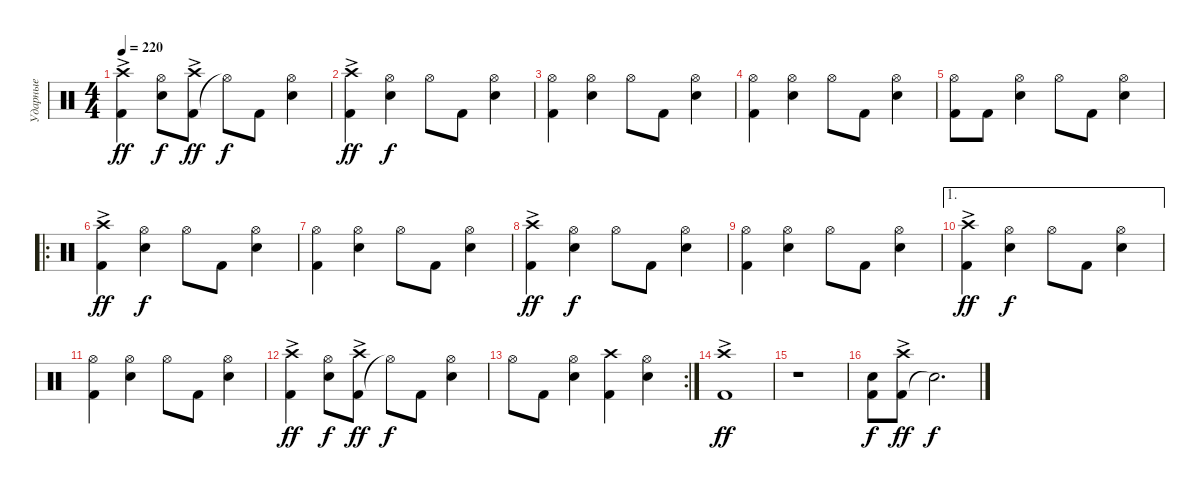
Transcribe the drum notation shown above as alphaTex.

\track ("Ударные" "Ударные") {instrument percussion}
\staff {score}
\articulation defaults
\ts (4 4)
\tempo 220
\clef neutral
\ks c
("Kick (hit) 2" "Crash high (hit)"{ac}).4{dy ff} ("Snare (hit) 2" "Hi-Hat (open)").8{dy f} ("Kick (hit) 2" "Crash high (hit)"{ac}).8{dy ff} "Hi-Hat (open)"{t}.8{dy f} "Kick (hit) 2".8 ("Snare (hit) 2" "Hi-Hat (open)").4 |
("Kick (hit) 2" "Crash high (hit)"{ac}).4{dy ff} ("Snare (hit) 2" "Hi-Hat (open)").4{dy f} "Hi-Hat (open)".8 "Kick (hit) 2".8 ("Snare (hit) 2" "Hi-Hat (open)").4 |
("Kick (hit) 2" "Hi-Hat (open)").4 ("Snare (hit) 2" "Hi-Hat (open)").4 "Hi-Hat (open)".8 "Kick (hit) 2".8 ("Snare (hit) 2" "Hi-Hat (open)").4 |
("Kick (hit) 2" "Hi-Hat (open)").4 ("Snare (hit) 2" "Hi-Hat (open)").4 "Hi-Hat (open)".8 "Kick (hit) 2".8 ("Snare (hit) 2" "Hi-Hat (open)").4 |
("Kick (hit) 2" "Hi-Hat (open)").8 "Kick (hit) 2".8 ("Snare (hit) 2" "Hi-Hat (open)").4 "Hi-Hat (open)".8 "Kick (hit) 2".8 ("Snare (hit) 2" "Hi-Hat (open)").4 |
\ro
("Kick (hit) 2" "Crash high (hit)"{ac}).4{dy ff} ("Snare (hit) 2" "Hi-Hat (open)").4{dy f} "Hi-Hat (open)".8 "Kick (hit) 2".8 ("Snare (hit) 2" "Hi-Hat (open)").4 |
("Kick (hit) 2" "Hi-Hat (open)").4 ("Snare (hit) 2" "Hi-Hat (open)").4 "Hi-Hat (open)".8 "Kick (hit) 2".8 ("Snare (hit) 2" "Hi-Hat (open)").4 |
("Kick (hit) 2" "Crash high (hit)"{ac}).4{dy ff} ("Snare (hit) 2" "Hi-Hat (open)").4{dy f} "Hi-Hat (open)".8 "Kick (hit) 2".8 ("Snare (hit) 2" "Hi-Hat (open)").4 |
("Kick (hit) 2" "Hi-Hat (open)").4 ("Snare (hit) 2" "Hi-Hat (open)").4 "Hi-Hat (open)".8 "Kick (hit) 2".8 ("Snare (hit) 2" "Hi-Hat (open)").4 |
\ae 1
("Kick (hit) 2" "Crash high (hit)"{ac}).4{dy ff} ("Snare (hit) 2" "Hi-Hat (open)").4{dy f} "Hi-Hat (open)".8 "Kick (hit) 2".8 ("Snare (hit) 2" "Hi-Hat (open)").4 |
("Kick (hit) 2" "Hi-Hat (open)").4 ("Snare (hit) 2" "Hi-Hat (open)").4 "Hi-Hat (open)".8 "Kick (hit) 2".8 ("Snare (hit) 2" "Hi-Hat (open)").4 |
("Kick (hit) 2" "Crash high (hit)"{ac}).4{dy ff} ("Snare (hit) 2" "Hi-Hat (open)").8{dy f} ("Kick (hit) 2" "Crash high (hit)"{ac}).8{dy ff} "Hi-Hat (open)"{t}.8{dy f} "Kick (hit) 2".8 ("Snare (hit) 2" "Hi-Hat (open)").4 |
\rc 2 "Hi-Hat (open)".8 "Kick (hit) 2".8
("Snare (hit) 2" "Hi-Hat (open)").4 ("Kick (hit) 2" "Crash high (hit)").4 ("Snare (hit) 2" "Hi-Hat (open)").4 |
("Kick (hit) 2" "Crash high (hit)"{ac}).1{dy ff} |
r.1 |
("Kick (hit) 2" "Snare (hit) 2").8{dy f} ("Kick (hit) 2" "Crash high (hit)"{ac}).8{dy ff} "Snare (hit)"{t}.2{d dy f}
